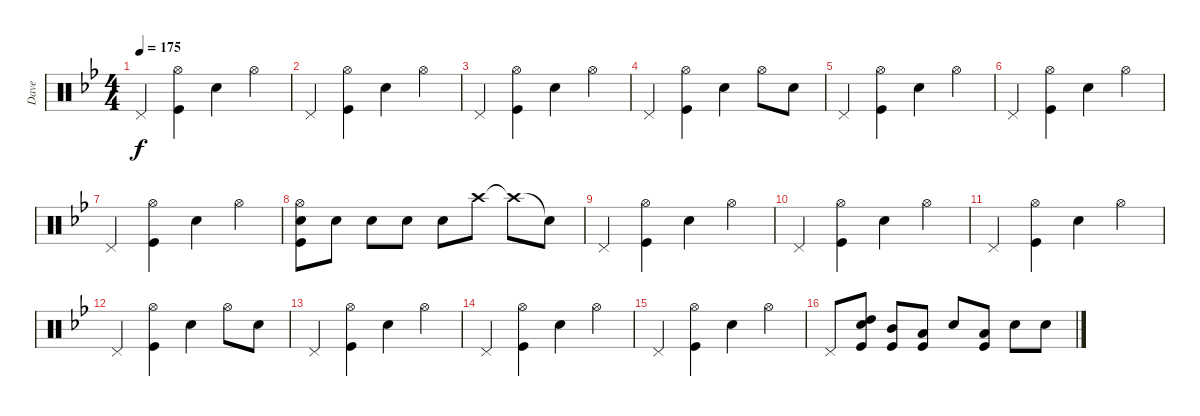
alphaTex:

\track ("Dave" "Dave") {instrument percussion}
\staff {score}
\articulation defaults
\ts (4 4)
\tempo 175
\clef neutral
\ks gminor "Pedal Hi-Hat (hit)".4{dy f}
("Hi-Hat (open)" "Kick (hit)").4 "Snare (hit) 2".4 "Hi-Hat (open)".4 |
"Pedal Hi-Hat (hit)".4 ("Hi-Hat (open)" "Kick (hit)").4 "Snare (hit) 2".4 "Hi-Hat (open)".4 |
"Pedal Hi-Hat (hit)".4 ("Hi-Hat (open)" "Kick (hit)").4 "Snare (hit) 2".4 "Hi-Hat (open)".4 |
"Pedal Hi-Hat (hit)".4 ("Hi-Hat (open)" "Kick (hit)").4 "Snare (hit) 2".4 "Hi-Hat (open)".8 "Snare (hit) 2".8 |
"Pedal Hi-Hat (hit)".4 ("Hi-Hat (open)" "Kick (hit)").4 "Snare (hit) 2".4 "Hi-Hat (open)".4 |
"Pedal Hi-Hat (hit)".4 ("Hi-Hat (open)" "Kick (hit)").4 "Snare (hit) 2".4 "Hi-Hat (open)".4 |
"Pedal Hi-Hat (hit)".4 ("Hi-Hat (open)" "Kick (hit)").4 "Snare (hit) 2".4 "Hi-Hat (open)".4 |
("Hi-Hat (open)" "Snare (hit) 2" "Kick (hit)").8 "Snare (hit) 2".8 "Snare (hit) 2".8 "Snare (hit) 2".8 "Snare (hit) 2".8 "Crash high (hit)".8 "Crash high (hit)"{t}.8 "Snare (hit)"{t}.8 |
"Pedal Hi-Hat (hit)".4 ("Hi-Hat (open)" "Kick (hit)").4 "Snare (hit) 2".4 "Hi-Hat (open)".4 |
"Pedal Hi-Hat (hit)".4 ("Hi-Hat (open)" "Kick (hit)").4 "Snare (hit) 2".4 "Hi-Hat (open)".4 |
"Pedal Hi-Hat (hit)".4 ("Hi-Hat (open)" "Kick (hit)").4 "Snare (hit) 2".4 "Hi-Hat (open)".4 |
"Pedal Hi-Hat (hit)".4 ("Hi-Hat (open)" "Kick (hit)").4 "Snare (hit) 2".4 "Hi-Hat (open)".8 "Snare (hit) 2".8 |
"Pedal Hi-Hat (hit)".4 ("Hi-Hat (open)" "Kick (hit)").4 "Snare (hit) 2".4 "Hi-Hat (open)".4 |
"Pedal Hi-Hat (hit)".4 ("Hi-Hat (open)" "Kick (hit)").4 "Snare (hit) 2".4 "Hi-Hat (open)".4 |
"Pedal Hi-Hat (hit)".4 ("Hi-Hat (open)" "Kick (hit)").4 "Snare (hit) 2".4 "Hi-Hat (open)".4 |
"Pedal Hi-Hat (hit)".8 ("High Tom (hit)" "Snare (hit) 2" "Kick (hit)").8 ("Mid Tom (hit)" "Kick (hit)").8 ("Low Tom (hit)" "Kick (hit)").8 "Snare (hit) 2".8 ("Low Floor Tom (hit)" "Kick (hit)").8 "Snare (hit) 2".8 "Snare (hit) 2".8
